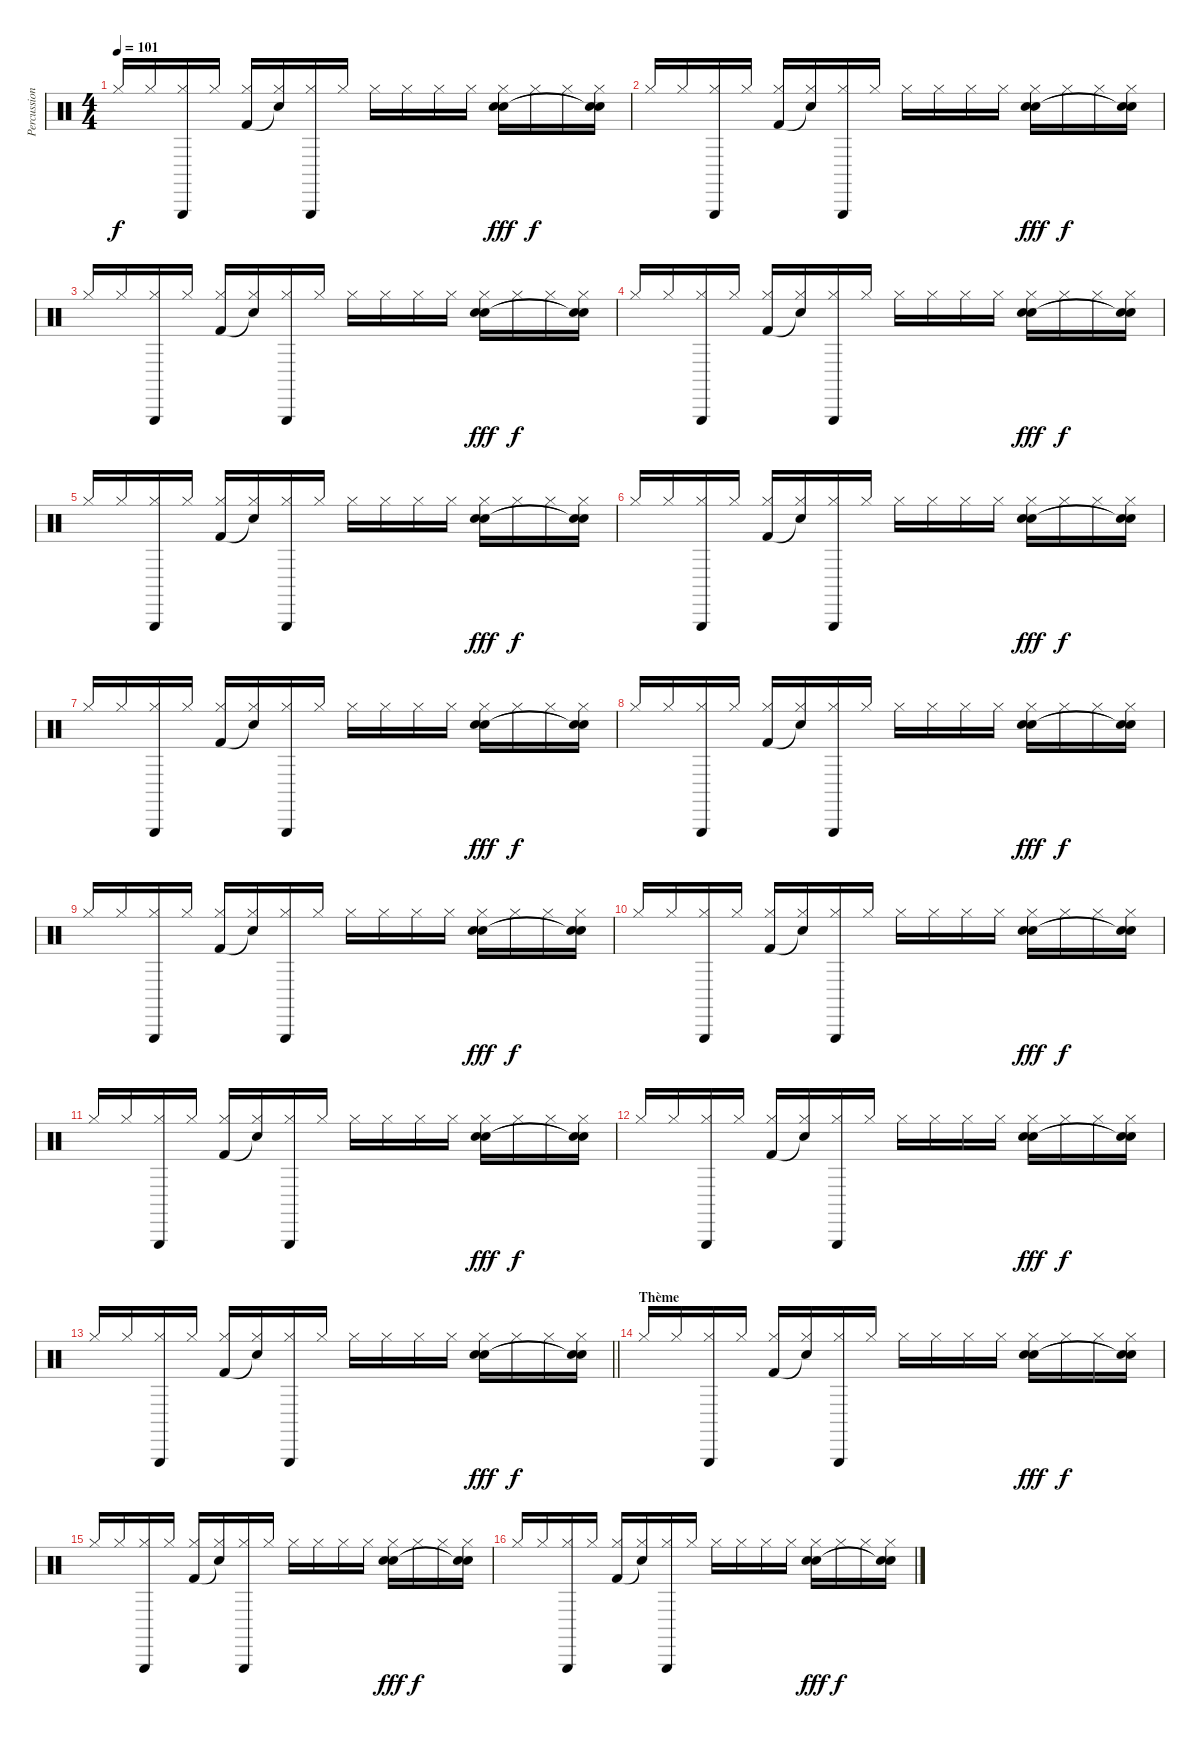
\track ("Percussions" "Percussion") {instrument percussion}
\staff {score}
\articulation defaults
\ts (4 4)
\tempo 101
\clef neutral
\ks c "Hi-Hat (closed)".16{dy f} "Hi-Hat (closed)".16
("Hi-Hat (closed)" "Triangle (hit)").16 "Hi-Hat (closed)".16 ("Hi-Hat (closed)" "Kick (hit) 2").16 ("Hi-Hat (closed)" "Snare (hit)"{t}).16 ("Hi-Hat (closed)" "Triangle (hit)").16 "Hi-Hat (closed)".16 "Hi-Hat (closed)".16 "Hi-Hat (closed)".16 "Hi-Hat (closed)".16 "Hi-Hat (closed)".16 ("Hi-Hat (closed)" "Hand Clap (hit)" "Snare (hit) 2").16{dy fff} "Hi-Hat (closed)".16{dy f} "Hi-Hat (closed)".16 ("Hi-Hat (closed)" "Snare (hit)"{t} "Snare (hit)"{t}).16 |
"Hi-Hat (closed)".16 "Hi-Hat (closed)".16 ("Hi-Hat (closed)" "Triangle (hit)").16 "Hi-Hat (closed)".16 ("Hi-Hat (closed)" "Kick (hit) 2").16 ("Hi-Hat (closed)" "Snare (hit)"{t}).16 ("Hi-Hat (closed)" "Triangle (hit)").16 "Hi-Hat (closed)".16 "Hi-Hat (closed)".16 "Hi-Hat (closed)".16 "Hi-Hat (closed)".16 "Hi-Hat (closed)".16 ("Hi-Hat (closed)" "Hand Clap (hit)" "Snare (hit) 2").16{dy fff} "Hi-Hat (closed)".16{dy f} "Hi-Hat (closed)".16 ("Hi-Hat (closed)" "Snare (hit)"{t} "Snare (hit)"{t}).16 |
"Hi-Hat (closed)".16 "Hi-Hat (closed)".16 ("Hi-Hat (closed)" "Triangle (hit)").16 "Hi-Hat (closed)".16 ("Hi-Hat (closed)" "Kick (hit) 2").16 ("Hi-Hat (closed)" "Snare (hit)"{t}).16 ("Hi-Hat (closed)" "Triangle (hit)").16 "Hi-Hat (closed)".16 "Hi-Hat (closed)".16 "Hi-Hat (closed)".16 "Hi-Hat (closed)".16 "Hi-Hat (closed)".16 ("Hi-Hat (closed)" "Hand Clap (hit)" "Snare (hit) 2").16{dy fff} "Hi-Hat (closed)".16{dy f} "Hi-Hat (closed)".16 ("Hi-Hat (closed)" "Snare (hit)"{t} "Snare (hit)"{t}).16 |
"Hi-Hat (closed)".16 "Hi-Hat (closed)".16 ("Hi-Hat (closed)" "Triangle (hit)").16 "Hi-Hat (closed)".16 ("Hi-Hat (closed)" "Kick (hit) 2").16 ("Hi-Hat (closed)" "Snare (hit)"{t}).16 ("Hi-Hat (closed)" "Triangle (hit)").16 "Hi-Hat (closed)".16 "Hi-Hat (closed)".16 "Hi-Hat (closed)".16 "Hi-Hat (closed)".16 "Hi-Hat (closed)".16 ("Hi-Hat (closed)" "Hand Clap (hit)" "Snare (hit) 2").16{dy fff} "Hi-Hat (closed)".16{dy f} "Hi-Hat (closed)".16 ("Hi-Hat (closed)" "Snare (hit)"{t} "Snare (hit)"{t}).16 |
"Hi-Hat (closed)".16 "Hi-Hat (closed)".16 ("Hi-Hat (closed)" "Triangle (hit)").16 "Hi-Hat (closed)".16 ("Hi-Hat (closed)" "Kick (hit) 2").16 ("Hi-Hat (closed)" "Snare (hit)"{t}).16 ("Hi-Hat (closed)" "Triangle (hit)").16 "Hi-Hat (closed)".16 "Hi-Hat (closed)".16 "Hi-Hat (closed)".16 "Hi-Hat (closed)".16 "Hi-Hat (closed)".16 ("Hi-Hat (closed)" "Hand Clap (hit)" "Snare (hit) 2").16{dy fff} "Hi-Hat (closed)".16{dy f} "Hi-Hat (closed)".16 ("Hi-Hat (closed)" "Snare (hit)"{t} "Snare (hit)"{t}).16 |
"Hi-Hat (closed)".16 "Hi-Hat (closed)".16 ("Hi-Hat (closed)" "Triangle (hit)").16 "Hi-Hat (closed)".16 ("Hi-Hat (closed)" "Kick (hit) 2").16 ("Hi-Hat (closed)" "Snare (hit)"{t}).16 ("Hi-Hat (closed)" "Triangle (hit)").16 "Hi-Hat (closed)".16 "Hi-Hat (closed)".16 "Hi-Hat (closed)".16 "Hi-Hat (closed)".16 "Hi-Hat (closed)".16 ("Hi-Hat (closed)" "Hand Clap (hit)" "Snare (hit) 2").16{dy fff} "Hi-Hat (closed)".16{dy f} "Hi-Hat (closed)".16 ("Hi-Hat (closed)" "Snare (hit)"{t} "Snare (hit)"{t}).16 |
"Hi-Hat (closed)".16 "Hi-Hat (closed)".16 ("Hi-Hat (closed)" "Triangle (hit)").16 "Hi-Hat (closed)".16 ("Hi-Hat (closed)" "Kick (hit) 2").16 ("Hi-Hat (closed)" "Snare (hit)"{t}).16 ("Hi-Hat (closed)" "Triangle (hit)").16 "Hi-Hat (closed)".16 "Hi-Hat (closed)".16 "Hi-Hat (closed)".16 "Hi-Hat (closed)".16 "Hi-Hat (closed)".16 ("Hi-Hat (closed)" "Hand Clap (hit)" "Snare (hit) 2").16{dy fff} "Hi-Hat (closed)".16{dy f} "Hi-Hat (closed)".16 ("Hi-Hat (closed)" "Snare (hit)"{t} "Snare (hit)"{t}).16 |
"Hi-Hat (closed)".16 "Hi-Hat (closed)".16 ("Hi-Hat (closed)" "Triangle (hit)").16 "Hi-Hat (closed)".16 ("Hi-Hat (closed)" "Kick (hit) 2").16 ("Hi-Hat (closed)" "Snare (hit)"{t}).16 ("Hi-Hat (closed)" "Triangle (hit)").16 "Hi-Hat (closed)".16 "Hi-Hat (closed)".16 "Hi-Hat (closed)".16 "Hi-Hat (closed)".16 "Hi-Hat (closed)".16 ("Hi-Hat (closed)" "Hand Clap (hit)" "Snare (hit) 2").16{dy fff} "Hi-Hat (closed)".16{dy f} "Hi-Hat (closed)".16 ("Hi-Hat (closed)" "Snare (hit)"{t} "Snare (hit)"{t}).16 |
"Hi-Hat (closed)".16 "Hi-Hat (closed)".16 ("Hi-Hat (closed)" "Triangle (hit)").16 "Hi-Hat (closed)".16 ("Hi-Hat (closed)" "Kick (hit) 2").16 ("Hi-Hat (closed)" "Snare (hit)"{t}).16 ("Hi-Hat (closed)" "Triangle (hit)").16 "Hi-Hat (closed)".16 "Hi-Hat (closed)".16 "Hi-Hat (closed)".16 "Hi-Hat (closed)".16 "Hi-Hat (closed)".16 ("Hi-Hat (closed)" "Hand Clap (hit)" "Snare (hit) 2").16{dy fff} "Hi-Hat (closed)".16{dy f} "Hi-Hat (closed)".16 ("Hi-Hat (closed)" "Snare (hit)"{t} "Snare (hit)"{t}).16 |
"Hi-Hat (closed)".16 "Hi-Hat (closed)".16 ("Hi-Hat (closed)" "Triangle (hit)").16 "Hi-Hat (closed)".16 ("Hi-Hat (closed)" "Kick (hit) 2").16 ("Hi-Hat (closed)" "Snare (hit)"{t}).16 ("Hi-Hat (closed)" "Triangle (hit)").16 "Hi-Hat (closed)".16 "Hi-Hat (closed)".16 "Hi-Hat (closed)".16 "Hi-Hat (closed)".16 "Hi-Hat (closed)".16 ("Hi-Hat (closed)" "Hand Clap (hit)" "Snare (hit) 2").16{dy fff} "Hi-Hat (closed)".16{dy f} "Hi-Hat (closed)".16 ("Hi-Hat (closed)" "Snare (hit)"{t} "Snare (hit)"{t}).16 |
"Hi-Hat (closed)".16 "Hi-Hat (closed)".16 ("Hi-Hat (closed)" "Triangle (hit)").16 "Hi-Hat (closed)".16 ("Hi-Hat (closed)" "Kick (hit) 2").16 ("Hi-Hat (closed)" "Snare (hit)"{t}).16 ("Hi-Hat (closed)" "Triangle (hit)").16 "Hi-Hat (closed)".16 "Hi-Hat (closed)".16 "Hi-Hat (closed)".16 "Hi-Hat (closed)".16 "Hi-Hat (closed)".16 ("Hi-Hat (closed)" "Hand Clap (hit)" "Snare (hit) 2").16{dy fff} "Hi-Hat (closed)".16{dy f} "Hi-Hat (closed)".16 ("Hi-Hat (closed)" "Snare (hit)"{t} "Snare (hit)"{t}).16 |
"Hi-Hat (closed)".16 "Hi-Hat (closed)".16 ("Hi-Hat (closed)" "Triangle (hit)").16 "Hi-Hat (closed)".16 ("Hi-Hat (closed)" "Kick (hit) 2").16 ("Hi-Hat (closed)" "Snare (hit)"{t}).16 ("Hi-Hat (closed)" "Triangle (hit)").16 "Hi-Hat (closed)".16 "Hi-Hat (closed)".16 "Hi-Hat (closed)".16 "Hi-Hat (closed)".16 "Hi-Hat (closed)".16 ("Hi-Hat (closed)" "Hand Clap (hit)" "Snare (hit) 2").16{dy fff} "Hi-Hat (closed)".16{dy f} "Hi-Hat (closed)".16 ("Hi-Hat (closed)" "Snare (hit)"{t} "Snare (hit)"{t}).16 |
\barLineRight lightlight "Hi-Hat (closed)".16 "Hi-Hat (closed)".16
("Hi-Hat (closed)" "Triangle (hit)").16 "Hi-Hat (closed)".16 ("Hi-Hat (closed)" "Kick (hit) 2").16 ("Hi-Hat (closed)" "Snare (hit)"{t}).16 ("Hi-Hat (closed)" "Triangle (hit)").16 "Hi-Hat (closed)".16 "Hi-Hat (closed)".16 "Hi-Hat (closed)".16 "Hi-Hat (closed)".16 "Hi-Hat (closed)".16 ("Hi-Hat (closed)" "Hand Clap (hit)" "Snare (hit) 2").16{dy fff} "Hi-Hat (closed)".16{dy f} "Hi-Hat (closed)".16 ("Hi-Hat (closed)" "Snare (hit)"{t} "Snare (hit)"{t}).16 |
\section ("" "Thème")
"Hi-Hat (closed)".16 "Hi-Hat (closed)".16 ("Hi-Hat (closed)" "Triangle (hit)").16 "Hi-Hat (closed)".16 ("Hi-Hat (closed)" "Kick (hit) 2").16 ("Hi-Hat (closed)" "Snare (hit)"{t}).16 ("Hi-Hat (closed)" "Triangle (hit)").16 "Hi-Hat (closed)".16 "Hi-Hat (closed)".16 "Hi-Hat (closed)".16 "Hi-Hat (closed)".16 "Hi-Hat (closed)".16 ("Hi-Hat (closed)" "Hand Clap (hit)" "Snare (hit) 2").16{dy fff} "Hi-Hat (closed)".16{dy f} "Hi-Hat (closed)".16 ("Hi-Hat (closed)" "Snare (hit)"{t} "Snare (hit)"{t}).16 |
"Hi-Hat (closed)".16 "Hi-Hat (closed)".16 ("Hi-Hat (closed)" "Triangle (hit)").16 "Hi-Hat (closed)".16 ("Hi-Hat (closed)" "Kick (hit) 2").16 ("Hi-Hat (closed)" "Snare (hit)"{t}).16 ("Hi-Hat (closed)" "Triangle (hit)").16 "Hi-Hat (closed)".16 "Hi-Hat (closed)".16 "Hi-Hat (closed)".16 "Hi-Hat (closed)".16 "Hi-Hat (closed)".16 ("Hi-Hat (closed)" "Hand Clap (hit)" "Snare (hit) 2").16{dy fff} "Hi-Hat (closed)".16{dy f} "Hi-Hat (closed)".16 ("Hi-Hat (closed)" "Snare (hit)"{t} "Snare (hit)"{t}).16 |
"Hi-Hat (closed)".16 "Hi-Hat (closed)".16 ("Hi-Hat (closed)" "Triangle (hit)").16 "Hi-Hat (closed)".16 ("Hi-Hat (closed)" "Kick (hit) 2").16 ("Hi-Hat (closed)" "Snare (hit)"{t}).16 ("Hi-Hat (closed)" "Triangle (hit)").16 "Hi-Hat (closed)".16 "Hi-Hat (closed)".16 "Hi-Hat (closed)".16 "Hi-Hat (closed)".16 "Hi-Hat (closed)".16 ("Hi-Hat (closed)" "Hand Clap (hit)" "Snare (hit) 2").16{dy fff} "Hi-Hat (closed)".16{dy f} "Hi-Hat (closed)".16 ("Hi-Hat (closed)" "Snare (hit)"{t} "Snare (hit)"{t}).16
